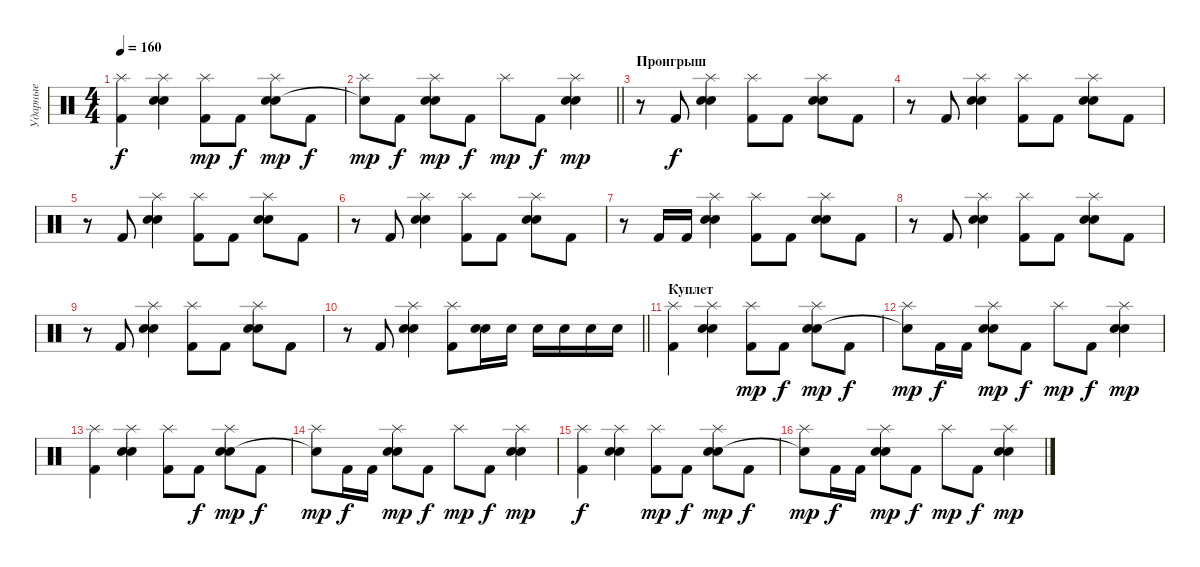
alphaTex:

\track ("Ударные" "Ударные") {instrument percussion}
\staff {score}
\articulation defaults
\ts (4 4)
\tempo 160
\clef neutral
\ks c
("Splash (hit)" "Kick (hit) 2").4{dy f} ("Splash (hit)" "Electric Snare (hit)" "Snare (hit) 2").4 ("Splash (hit)" "Kick (hit) 2").8{dy mp} "Kick (hit) 2".8{dy f} ("Splash (hit)" "Electric Snare (hit)" "Snare (hit) 2").8{dy mp} "Kick (hit) 2".8{dy f} |
\barLineRight lightlight
("Splash (hit)" "Snare (hit)"{t}).8{dy mp} "Kick (hit) 2".8{dy f} ("Splash (hit)" "Electric Snare (hit)" "Snare (hit) 2").8{dy mp} "Kick (hit) 2".8{dy f} "Splash (hit)".8{dy mp} "Kick (hit) 2".8{dy f} ("Splash (hit)" "Electric Snare (hit)" "Snare (hit) 2").4{dy mp} |
\section ("" "Проигрыш")
r.8 "Kick (hit) 2".8{dy f} ("Splash (hit)" "Electric Snare (hit)" "Snare (hit) 2").4 ("Splash (hit)" "Kick (hit) 2").8 "Kick (hit) 2".8 ("Splash (hit)" "Electric Snare (hit)" "Snare (hit) 2").8 "Kick (hit) 2".8 |
r.8 "Kick (hit) 2".8 ("Splash (hit)" "Electric Snare (hit)" "Snare (hit) 2").4 ("Splash (hit)" "Kick (hit) 2").8 "Kick (hit) 2".8 ("Splash (hit)" "Electric Snare (hit)" "Snare (hit) 2").8 "Kick (hit) 2".8 |
r.8 "Kick (hit) 2".8 ("Splash (hit)" "Electric Snare (hit)" "Snare (hit) 2").4 ("Splash (hit)" "Kick (hit) 2").8 "Kick (hit) 2".8 ("Splash (hit)" "Electric Snare (hit)" "Snare (hit) 2").8 "Kick (hit) 2".8 |
r.8 "Kick (hit) 2".8 ("Splash (hit)" "Electric Snare (hit)" "Snare (hit) 2").4 ("Splash (hit)" "Kick (hit) 2").8 "Kick (hit) 2".8 ("Splash (hit)" "Electric Snare (hit)" "Snare (hit) 2").8 "Kick (hit) 2".8 |
r.8 "Kick (hit) 2".16 "Kick (hit) 2".16 ("Splash (hit)" "Electric Snare (hit)" "Snare (hit) 2").4 ("Splash (hit)" "Kick (hit) 2").8 "Kick (hit) 2".8 ("Splash (hit)" "Electric Snare (hit)" "Snare (hit) 2").8 "Kick (hit) 2".8 |
r.8 "Kick (hit) 2".8 ("Splash (hit)" "Electric Snare (hit)" "Snare (hit) 2").4 ("Splash (hit)" "Kick (hit) 2").8 "Kick (hit) 2".8 ("Splash (hit)" "Electric Snare (hit)" "Snare (hit) 2").8 "Kick (hit) 2".8 |
r.8 "Kick (hit) 2".8 ("Splash (hit)" "Electric Snare (hit)" "Snare (hit) 2").4 ("Splash (hit)" "Kick (hit) 2").8 "Kick (hit) 2".8 ("Splash (hit)" "Electric Snare (hit)" "Snare (hit) 2").8 "Kick (hit) 2".8 |
\barLineRight lightlight
r.8 "Kick (hit) 2".8 ("Splash (hit)" "Electric Snare (hit)" "Snare (hit) 2").4 ("Splash (hit)" "Kick (hit) 2").8 ("Electric Snare (hit)" "Snare (hit) 2").16 "Electric Snare (hit)".16 "Electric Snare (hit)".16 "Electric Snare (hit)".16 "Electric Snare (hit)".16 "Electric Snare (hit)".16 |
\section ("" "Куплет")
("Splash (hit)" "Kick (hit) 2").4 ("Splash (hit)" "Electric Snare (hit)" "Snare (hit) 2").4 ("Splash (hit)" "Kick (hit) 2").8{dy mp} "Kick (hit) 2".8{dy f} ("Splash (hit)" "Electric Snare (hit)" "Snare (hit) 2").8{dy mp} "Kick (hit) 2".8{dy f} |
("Splash (hit)" "Snare (hit)"{t}).8{dy mp} "Kick (hit) 2".16{dy f} "Kick (hit) 2".16 ("Splash (hit)" "Electric Snare (hit)" "Snare (hit) 2").8{dy mp} "Kick (hit) 2".8{dy f} "Splash (hit)".8{dy mp} "Kick (hit) 2".8{dy f} ("Splash (hit)" "Electric Snare (hit)" "Snare (hit) 2").4{dy mp} |
("Splash (hit)" "Kick (hit) 2").4 ("Splash (hit)" "Electric Snare (hit)" "Snare (hit) 2").4 ("Splash (hit)" "Kick (hit) 2").8 "Kick (hit) 2".8{dy f} ("Splash (hit)" "Electric Snare (hit)" "Snare (hit) 2").8{dy mp} "Kick (hit) 2".8{dy f} |
("Splash (hit)" "Snare (hit)"{t}).8{dy mp} "Kick (hit) 2".16{dy f} "Kick (hit) 2".16 ("Splash (hit)" "Electric Snare (hit)" "Snare (hit) 2").8{dy mp} "Kick (hit) 2".8{dy f} "Splash (hit)".8{dy mp} "Kick (hit) 2".8{dy f} ("Splash (hit)" "Electric Snare (hit)" "Snare (hit) 2").4{dy mp} |
("Splash (hit)" "Kick (hit) 2").4{dy f} ("Splash (hit)" "Electric Snare (hit)" "Snare (hit) 2").4 ("Splash (hit)" "Kick (hit) 2").8{dy mp} "Kick (hit) 2".8{dy f} ("Splash (hit)" "Electric Snare (hit)" "Snare (hit) 2").8{dy mp} "Kick (hit) 2".8{dy f} |
("Splash (hit)" "Snare (hit)"{t}).8{dy mp} "Kick (hit) 2".16{dy f} "Kick (hit) 2".16 ("Splash (hit)" "Electric Snare (hit)" "Snare (hit) 2").8{dy mp} "Kick (hit) 2".8{dy f} "Splash (hit)".8{dy mp} "Kick (hit) 2".8{dy f} ("Splash (hit)" "Electric Snare (hit)" "Snare (hit) 2").4{dy mp}
